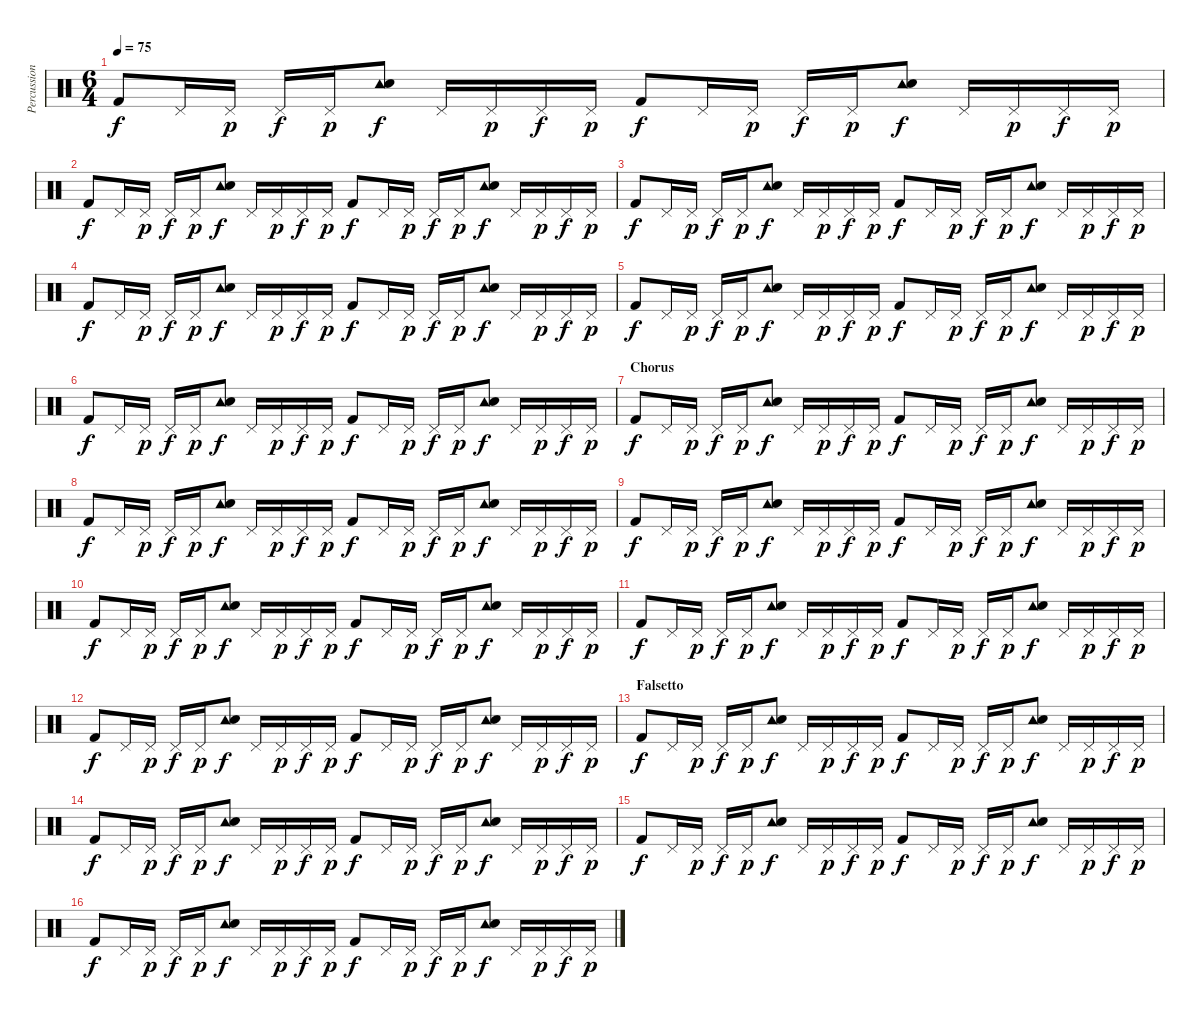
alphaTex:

\track ("Percussion" "Percussion") {instrument percussion}
\staff {score}
\articulation defaults
\ts (6 4)
\tempo 75
\clef neutral
\ks c "Kick (hit) 2".8{dy f} "Pedal Hi-Hat (hit)".16 "Pedal Hi-Hat (hit)".16{dy p} "Pedal Hi-Hat (hit)".16{dy f} "Pedal Hi-Hat (hit)".16{dy p}
("Tambourine (hit)" "Snare (hit) 2").8{dy f} "Pedal Hi-Hat (hit)".16 "Pedal Hi-Hat (hit)".16{dy p} "Pedal Hi-Hat (hit)".16{dy f} "Pedal Hi-Hat (hit)".16{dy p} "Kick (hit) 2".8{dy f} "Pedal Hi-Hat (hit)".16 "Pedal Hi-Hat (hit)".16{dy p} "Pedal Hi-Hat (hit)".16{dy f} "Pedal Hi-Hat (hit)".16{dy p} ("Tambourine (hit)" "Snare (hit) 2").8{dy f} "Pedal Hi-Hat (hit)".16 "Pedal Hi-Hat (hit)".16{dy p} "Pedal Hi-Hat (hit)".16{dy f} "Pedal Hi-Hat (hit)".16{dy p} |
"Kick (hit) 2".8{dy f} "Pedal Hi-Hat (hit)".16 "Pedal Hi-Hat (hit)".16{dy p} "Pedal Hi-Hat (hit)".16{dy f} "Pedal Hi-Hat (hit)".16{dy p} ("Tambourine (hit)" "Snare (hit) 2").8{dy f} "Pedal Hi-Hat (hit)".16 "Pedal Hi-Hat (hit)".16{dy p} "Pedal Hi-Hat (hit)".16{dy f} "Pedal Hi-Hat (hit)".16{dy p} "Kick (hit) 2".8{dy f} "Pedal Hi-Hat (hit)".16 "Pedal Hi-Hat (hit)".16{dy p} "Pedal Hi-Hat (hit)".16{dy f} "Pedal Hi-Hat (hit)".16{dy p} ("Tambourine (hit)" "Snare (hit) 2").8{dy f} "Pedal Hi-Hat (hit)".16 "Pedal Hi-Hat (hit)".16{dy p} "Pedal Hi-Hat (hit)".16{dy f} "Pedal Hi-Hat (hit)".16{dy p} |
"Kick (hit) 2".8{dy f} "Pedal Hi-Hat (hit)".16 "Pedal Hi-Hat (hit)".16{dy p} "Pedal Hi-Hat (hit)".16{dy f} "Pedal Hi-Hat (hit)".16{dy p} ("Tambourine (hit)" "Snare (hit) 2").8{dy f} "Pedal Hi-Hat (hit)".16 "Pedal Hi-Hat (hit)".16{dy p} "Pedal Hi-Hat (hit)".16{dy f} "Pedal Hi-Hat (hit)".16{dy p} "Kick (hit) 2".8{dy f} "Pedal Hi-Hat (hit)".16 "Pedal Hi-Hat (hit)".16{dy p} "Pedal Hi-Hat (hit)".16{dy f} "Pedal Hi-Hat (hit)".16{dy p} ("Tambourine (hit)" "Snare (hit) 2").8{dy f} "Pedal Hi-Hat (hit)".16 "Pedal Hi-Hat (hit)".16{dy p} "Pedal Hi-Hat (hit)".16{dy f} "Pedal Hi-Hat (hit)".16{dy p} |
"Kick (hit) 2".8{dy f} "Pedal Hi-Hat (hit)".16 "Pedal Hi-Hat (hit)".16{dy p} "Pedal Hi-Hat (hit)".16{dy f} "Pedal Hi-Hat (hit)".16{dy p} ("Tambourine (hit)" "Snare (hit) 2").8{dy f} "Pedal Hi-Hat (hit)".16 "Pedal Hi-Hat (hit)".16{dy p} "Pedal Hi-Hat (hit)".16{dy f} "Pedal Hi-Hat (hit)".16{dy p} "Kick (hit) 2".8{dy f} "Pedal Hi-Hat (hit)".16 "Pedal Hi-Hat (hit)".16{dy p} "Pedal Hi-Hat (hit)".16{dy f} "Pedal Hi-Hat (hit)".16{dy p} ("Tambourine (hit)" "Snare (hit) 2").8{dy f} "Pedal Hi-Hat (hit)".16 "Pedal Hi-Hat (hit)".16{dy p} "Pedal Hi-Hat (hit)".16{dy f} "Pedal Hi-Hat (hit)".16{dy p} |
"Kick (hit) 2".8{dy f} "Pedal Hi-Hat (hit)".16 "Pedal Hi-Hat (hit)".16{dy p} "Pedal Hi-Hat (hit)".16{dy f} "Pedal Hi-Hat (hit)".16{dy p} ("Tambourine (hit)" "Snare (hit) 2").8{dy f} "Pedal Hi-Hat (hit)".16 "Pedal Hi-Hat (hit)".16{dy p} "Pedal Hi-Hat (hit)".16{dy f} "Pedal Hi-Hat (hit)".16{dy p} "Kick (hit) 2".8{dy f} "Pedal Hi-Hat (hit)".16 "Pedal Hi-Hat (hit)".16{dy p} "Pedal Hi-Hat (hit)".16{dy f} "Pedal Hi-Hat (hit)".16{dy p} ("Tambourine (hit)" "Snare (hit) 2").8{dy f} "Pedal Hi-Hat (hit)".16 "Pedal Hi-Hat (hit)".16{dy p} "Pedal Hi-Hat (hit)".16{dy f} "Pedal Hi-Hat (hit)".16{dy p} |
"Kick (hit) 2".8{dy f} "Pedal Hi-Hat (hit)".16 "Pedal Hi-Hat (hit)".16{dy p} "Pedal Hi-Hat (hit)".16{dy f} "Pedal Hi-Hat (hit)".16{dy p} ("Tambourine (hit)" "Snare (hit) 2").8{dy f} "Pedal Hi-Hat (hit)".16 "Pedal Hi-Hat (hit)".16{dy p} "Pedal Hi-Hat (hit)".16{dy f} "Pedal Hi-Hat (hit)".16{dy p} "Kick (hit) 2".8{dy f} "Pedal Hi-Hat (hit)".16 "Pedal Hi-Hat (hit)".16{dy p} "Pedal Hi-Hat (hit)".16{dy f} "Pedal Hi-Hat (hit)".16{dy p} ("Tambourine (hit)" "Snare (hit) 2").8{dy f} "Pedal Hi-Hat (hit)".16 "Pedal Hi-Hat (hit)".16{dy p} "Pedal Hi-Hat (hit)".16{dy f} "Pedal Hi-Hat (hit)".16{dy p} |
\section ("" "Chorus")
"Kick (hit) 2".8{dy f} "Pedal Hi-Hat (hit)".16 "Pedal Hi-Hat (hit)".16{dy p} "Pedal Hi-Hat (hit)".16{dy f} "Pedal Hi-Hat (hit)".16{dy p} ("Tambourine (hit)" "Snare (hit) 2").8{dy f} "Pedal Hi-Hat (hit)".16 "Pedal Hi-Hat (hit)".16{dy p} "Pedal Hi-Hat (hit)".16{dy f} "Pedal Hi-Hat (hit)".16{dy p} "Kick (hit) 2".8{dy f} "Pedal Hi-Hat (hit)".16 "Pedal Hi-Hat (hit)".16{dy p} "Pedal Hi-Hat (hit)".16{dy f} "Pedal Hi-Hat (hit)".16{dy p} ("Tambourine (hit)" "Snare (hit) 2").8{dy f} "Pedal Hi-Hat (hit)".16 "Pedal Hi-Hat (hit)".16{dy p} "Pedal Hi-Hat (hit)".16{dy f} "Pedal Hi-Hat (hit)".16{dy p} |
"Kick (hit) 2".8{dy f} "Pedal Hi-Hat (hit)".16 "Pedal Hi-Hat (hit)".16{dy p} "Pedal Hi-Hat (hit)".16{dy f} "Pedal Hi-Hat (hit)".16{dy p} ("Tambourine (hit)" "Snare (hit) 2").8{dy f} "Pedal Hi-Hat (hit)".16 "Pedal Hi-Hat (hit)".16{dy p} "Pedal Hi-Hat (hit)".16{dy f} "Pedal Hi-Hat (hit)".16{dy p} "Kick (hit) 2".8{dy f} "Pedal Hi-Hat (hit)".16 "Pedal Hi-Hat (hit)".16{dy p} "Pedal Hi-Hat (hit)".16{dy f} "Pedal Hi-Hat (hit)".16{dy p} ("Tambourine (hit)" "Snare (hit) 2").8{dy f} "Pedal Hi-Hat (hit)".16 "Pedal Hi-Hat (hit)".16{dy p} "Pedal Hi-Hat (hit)".16{dy f} "Pedal Hi-Hat (hit)".16{dy p} |
"Kick (hit) 2".8{dy f} "Pedal Hi-Hat (hit)".16 "Pedal Hi-Hat (hit)".16{dy p} "Pedal Hi-Hat (hit)".16{dy f} "Pedal Hi-Hat (hit)".16{dy p} ("Tambourine (hit)" "Snare (hit) 2").8{dy f} "Pedal Hi-Hat (hit)".16 "Pedal Hi-Hat (hit)".16{dy p} "Pedal Hi-Hat (hit)".16{dy f} "Pedal Hi-Hat (hit)".16{dy p} "Kick (hit) 2".8{dy f} "Pedal Hi-Hat (hit)".16 "Pedal Hi-Hat (hit)".16{dy p} "Pedal Hi-Hat (hit)".16{dy f} "Pedal Hi-Hat (hit)".16{dy p} ("Tambourine (hit)" "Snare (hit) 2").8{dy f} "Pedal Hi-Hat (hit)".16 "Pedal Hi-Hat (hit)".16{dy p} "Pedal Hi-Hat (hit)".16{dy f} "Pedal Hi-Hat (hit)".16{dy p} |
"Kick (hit) 2".8{dy f} "Pedal Hi-Hat (hit)".16 "Pedal Hi-Hat (hit)".16{dy p} "Pedal Hi-Hat (hit)".16{dy f} "Pedal Hi-Hat (hit)".16{dy p} ("Tambourine (hit)" "Snare (hit) 2").8{dy f} "Pedal Hi-Hat (hit)".16 "Pedal Hi-Hat (hit)".16{dy p} "Pedal Hi-Hat (hit)".16{dy f} "Pedal Hi-Hat (hit)".16{dy p} "Kick (hit) 2".8{dy f} "Pedal Hi-Hat (hit)".16 "Pedal Hi-Hat (hit)".16{dy p} "Pedal Hi-Hat (hit)".16{dy f} "Pedal Hi-Hat (hit)".16{dy p} ("Tambourine (hit)" "Snare (hit) 2").8{dy f} "Pedal Hi-Hat (hit)".16 "Pedal Hi-Hat (hit)".16{dy p} "Pedal Hi-Hat (hit)".16{dy f} "Pedal Hi-Hat (hit)".16{dy p} |
"Kick (hit) 2".8{dy f} "Pedal Hi-Hat (hit)".16 "Pedal Hi-Hat (hit)".16{dy p} "Pedal Hi-Hat (hit)".16{dy f} "Pedal Hi-Hat (hit)".16{dy p} ("Tambourine (hit)" "Snare (hit) 2").8{dy f} "Pedal Hi-Hat (hit)".16 "Pedal Hi-Hat (hit)".16{dy p} "Pedal Hi-Hat (hit)".16{dy f} "Pedal Hi-Hat (hit)".16{dy p} "Kick (hit) 2".8{dy f} "Pedal Hi-Hat (hit)".16 "Pedal Hi-Hat (hit)".16{dy p} "Pedal Hi-Hat (hit)".16{dy f} "Pedal Hi-Hat (hit)".16{dy p} ("Tambourine (hit)" "Snare (hit) 2").8{dy f} "Pedal Hi-Hat (hit)".16 "Pedal Hi-Hat (hit)".16{dy p} "Pedal Hi-Hat (hit)".16{dy f} "Pedal Hi-Hat (hit)".16{dy p} |
"Kick (hit) 2".8{dy f} "Pedal Hi-Hat (hit)".16 "Pedal Hi-Hat (hit)".16{dy p} "Pedal Hi-Hat (hit)".16{dy f} "Pedal Hi-Hat (hit)".16{dy p} ("Tambourine (hit)" "Snare (hit) 2").8{dy f} "Pedal Hi-Hat (hit)".16 "Pedal Hi-Hat (hit)".16{dy p} "Pedal Hi-Hat (hit)".16{dy f} "Pedal Hi-Hat (hit)".16{dy p} "Kick (hit) 2".8{dy f} "Pedal Hi-Hat (hit)".16 "Pedal Hi-Hat (hit)".16{dy p} "Pedal Hi-Hat (hit)".16{dy f} "Pedal Hi-Hat (hit)".16{dy p} ("Tambourine (hit)" "Snare (hit) 2").8{dy f} "Pedal Hi-Hat (hit)".16 "Pedal Hi-Hat (hit)".16{dy p} "Pedal Hi-Hat (hit)".16{dy f} "Pedal Hi-Hat (hit)".16{dy p} |
\section ("" "Falsetto")
"Kick (hit) 2".8{dy f} "Pedal Hi-Hat (hit)".16 "Pedal Hi-Hat (hit)".16{dy p} "Pedal Hi-Hat (hit)".16{dy f} "Pedal Hi-Hat (hit)".16{dy p} ("Tambourine (hit)" "Snare (hit) 2").8{dy f} "Pedal Hi-Hat (hit)".16 "Pedal Hi-Hat (hit)".16{dy p} "Pedal Hi-Hat (hit)".16{dy f} "Pedal Hi-Hat (hit)".16{dy p} "Kick (hit) 2".8{dy f} "Pedal Hi-Hat (hit)".16 "Pedal Hi-Hat (hit)".16{dy p} "Pedal Hi-Hat (hit)".16{dy f} "Pedal Hi-Hat (hit)".16{dy p} ("Tambourine (hit)" "Snare (hit) 2").8{dy f} "Pedal Hi-Hat (hit)".16 "Pedal Hi-Hat (hit)".16{dy p} "Pedal Hi-Hat (hit)".16{dy f} "Pedal Hi-Hat (hit)".16{dy p} |
"Kick (hit) 2".8{dy f} "Pedal Hi-Hat (hit)".16 "Pedal Hi-Hat (hit)".16{dy p} "Pedal Hi-Hat (hit)".16{dy f} "Pedal Hi-Hat (hit)".16{dy p} ("Tambourine (hit)" "Snare (hit) 2").8{dy f} "Pedal Hi-Hat (hit)".16 "Pedal Hi-Hat (hit)".16{dy p} "Pedal Hi-Hat (hit)".16{dy f} "Pedal Hi-Hat (hit)".16{dy p} "Kick (hit) 2".8{dy f} "Pedal Hi-Hat (hit)".16 "Pedal Hi-Hat (hit)".16{dy p} "Pedal Hi-Hat (hit)".16{dy f} "Pedal Hi-Hat (hit)".16{dy p} ("Tambourine (hit)" "Snare (hit) 2").8{dy f} "Pedal Hi-Hat (hit)".16 "Pedal Hi-Hat (hit)".16{dy p} "Pedal Hi-Hat (hit)".16{dy f} "Pedal Hi-Hat (hit)".16{dy p} |
"Kick (hit) 2".8{dy f} "Pedal Hi-Hat (hit)".16 "Pedal Hi-Hat (hit)".16{dy p} "Pedal Hi-Hat (hit)".16{dy f} "Pedal Hi-Hat (hit)".16{dy p} ("Tambourine (hit)" "Snare (hit) 2").8{dy f} "Pedal Hi-Hat (hit)".16 "Pedal Hi-Hat (hit)".16{dy p} "Pedal Hi-Hat (hit)".16{dy f} "Pedal Hi-Hat (hit)".16{dy p} "Kick (hit) 2".8{dy f} "Pedal Hi-Hat (hit)".16 "Pedal Hi-Hat (hit)".16{dy p} "Pedal Hi-Hat (hit)".16{dy f} "Pedal Hi-Hat (hit)".16{dy p} ("Tambourine (hit)" "Snare (hit) 2").8{dy f} "Pedal Hi-Hat (hit)".16 "Pedal Hi-Hat (hit)".16{dy p} "Pedal Hi-Hat (hit)".16{dy f} "Pedal Hi-Hat (hit)".16{dy p} |
"Kick (hit) 2".8{dy f} "Pedal Hi-Hat (hit)".16 "Pedal Hi-Hat (hit)".16{dy p} "Pedal Hi-Hat (hit)".16{dy f} "Pedal Hi-Hat (hit)".16{dy p} ("Tambourine (hit)" "Snare (hit) 2").8{dy f} "Pedal Hi-Hat (hit)".16 "Pedal Hi-Hat (hit)".16{dy p} "Pedal Hi-Hat (hit)".16{dy f} "Pedal Hi-Hat (hit)".16{dy p} "Kick (hit) 2".8{dy f} "Pedal Hi-Hat (hit)".16 "Pedal Hi-Hat (hit)".16{dy p} "Pedal Hi-Hat (hit)".16{dy f} "Pedal Hi-Hat (hit)".16{dy p} ("Tambourine (hit)" "Snare (hit) 2").8{dy f} "Pedal Hi-Hat (hit)".16 "Pedal Hi-Hat (hit)".16{dy p} "Pedal Hi-Hat (hit)".16{dy f} "Pedal Hi-Hat (hit)".16{dy p}
